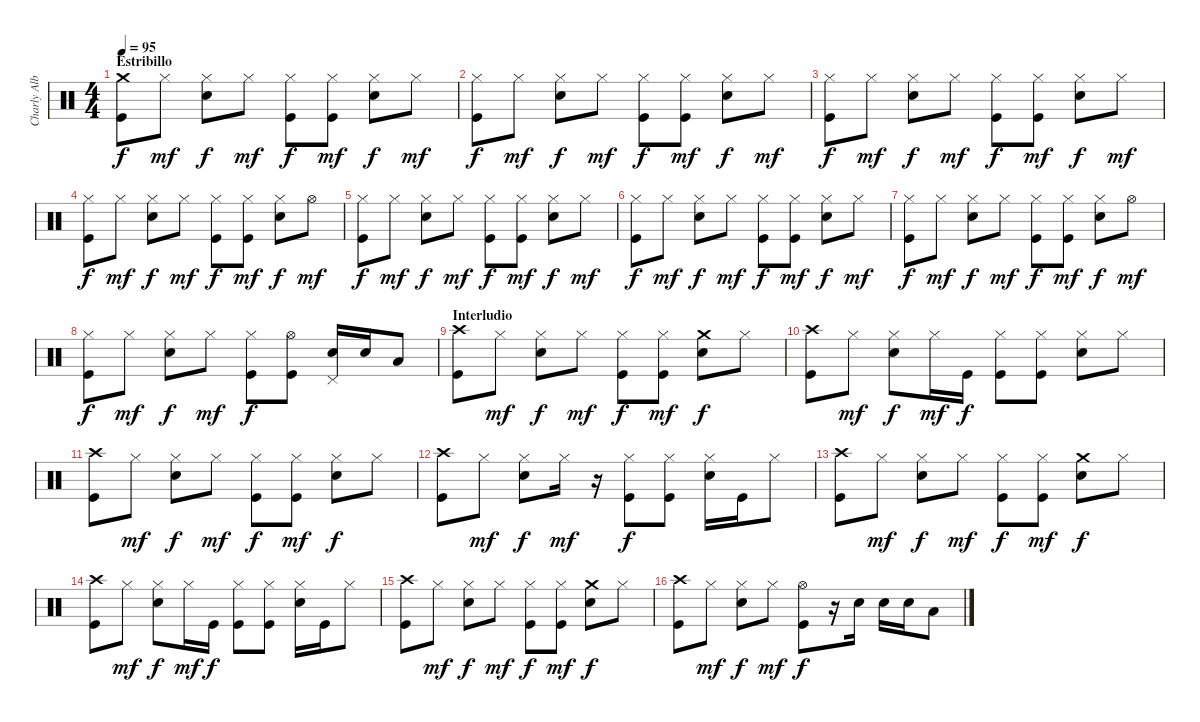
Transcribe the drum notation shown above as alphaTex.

\track ("Charly Alberti BATERIA" "Charly Alb") {instrument percussion}
\staff {score}
\articulation defaults
\ts (4 4)
\section ("" "Estribillo")
\tempo 95
\clef neutral
\ks c
("Kick (hit)" "Crash medium (hit)").8{dy f} "Hi-Hat (closed)".8{dy mf} ("Electric Snare (hit)" "Hi-Hat (closed)").8{dy f} "Hi-Hat (closed)".8{dy mf} ("Kick (hit)" "Hi-Hat (closed)").8{dy f} ("Kick (hit)" "Hi-Hat (closed)").8{dy mf} ("Electric Snare (hit)" "Hi-Hat (closed)").8{dy f} "Hi-Hat (closed)".8{dy mf} |
("Kick (hit)" "Hi-Hat (closed)").8{dy f} "Hi-Hat (closed)".8{dy mf} ("Electric Snare (hit)" "Hi-Hat (closed)").8{dy f} "Hi-Hat (closed)".8{dy mf} ("Kick (hit)" "Hi-Hat (closed)").8{dy f} ("Kick (hit)" "Hi-Hat (closed)").8{dy mf} ("Electric Snare (hit)" "Hi-Hat (closed)").8{dy f} "Hi-Hat (closed)".8{dy mf} |
("Kick (hit)" "Hi-Hat (closed)").8{dy f} "Hi-Hat (closed)".8{dy mf} ("Electric Snare (hit)" "Hi-Hat (closed)").8{dy f} "Hi-Hat (closed)".8{dy mf} ("Kick (hit)" "Hi-Hat (closed)").8{dy f} ("Kick (hit)" "Hi-Hat (closed)").8{dy mf} ("Electric Snare (hit)" "Hi-Hat (closed)").8{dy f} "Hi-Hat (closed)".8{dy mf} |
("Kick (hit)" "Hi-Hat (closed)").8{dy f} "Hi-Hat (closed)".8{dy mf} ("Electric Snare (hit)" "Hi-Hat (closed)").8{dy f} "Hi-Hat (closed)".8{dy mf} ("Kick (hit)" "Hi-Hat (closed)").8{dy f} ("Kick (hit)" "Hi-Hat (closed)").8{dy mf} ("Electric Snare (hit)" "Hi-Hat (closed)").8{dy f} "Hi-Hat (open)".8{dy mf} |
("Kick (hit)" "Hi-Hat (closed)").8{dy f} "Hi-Hat (closed)".8{dy mf} ("Electric Snare (hit)" "Hi-Hat (closed)").8{dy f} "Hi-Hat (closed)".8{dy mf} ("Kick (hit)" "Hi-Hat (closed)").8{dy f} ("Kick (hit)" "Hi-Hat (closed)").8{dy mf} ("Electric Snare (hit)" "Hi-Hat (closed)").8{dy f} "Hi-Hat (closed)".8{dy mf} |
("Kick (hit)" "Hi-Hat (closed)").8{dy f} "Hi-Hat (closed)".8{dy mf} ("Electric Snare (hit)" "Hi-Hat (closed)").8{dy f} "Hi-Hat (closed)".8{dy mf} ("Kick (hit)" "Hi-Hat (closed)").8{dy f} ("Kick (hit)" "Hi-Hat (closed)").8{dy mf} ("Electric Snare (hit)" "Hi-Hat (closed)").8{dy f} "Hi-Hat (closed)".8{dy mf} |
("Kick (hit)" "Hi-Hat (closed)").8{dy f} "Hi-Hat (closed)".8{dy mf} ("Electric Snare (hit)" "Hi-Hat (closed)").8{dy f} "Hi-Hat (closed)".8{dy mf} ("Kick (hit)" "Hi-Hat (closed)").8{dy f} ("Kick (hit)" "Hi-Hat (closed)").8{dy mf} ("Electric Snare (hit)" "Hi-Hat (closed)").8{dy f} "Hi-Hat (open)".8{dy mf} |
("Kick (hit)" "Hi-Hat (closed)").8{dy f} "Hi-Hat (closed)".8{dy mf} ("Electric Snare (hit)" "Hi-Hat (closed)").8{dy f} "Hi-Hat (closed)".8{dy mf} ("Kick (hit)" "Hi-Hat (closed)").8{dy f} ("Kick (hit)" "Hi-Hat (open)").8 ("Electric Snare (hit)" "Pedal Hi-Hat (hit)").16 "Electric Snare (hit)".16 "Low Tom (hit)".8 |
\section ("" "Interludio")
("Kick (hit)" "Crash high (hit)").8 "Hi-Hat (closed)".8{dy mf} ("Electric Snare (hit)" "Hi-Hat (closed)").8{dy f} "Hi-Hat (closed)".8{dy mf} ("Kick (hit)" "Hi-Hat (closed)").8{dy f} ("Kick (hit)" "Hi-Hat (closed)").8{dy mf} ("Electric Snare (hit)" "Crash medium (hit)").8{dy f} "Hi-Hat (closed)".8 |
("Kick (hit)" "Crash high (hit)").8 "Hi-Hat (closed)".8{dy mf} ("Electric Snare (hit)" "Hi-Hat (closed)").8{dy f} "Hi-Hat (closed)".16{dy mf} "Kick (hit)".16{dy f} ("Kick (hit)" "Hi-Hat (closed)").8 ("Kick (hit)" "Hi-Hat (closed)").8 ("Electric Snare (hit)" "Hi-Hat (closed)").8 "Hi-Hat (closed)".8 |
("Kick (hit)" "Crash high (hit)").8 "Hi-Hat (closed)".8{dy mf} ("Electric Snare (hit)" "Hi-Hat (closed)").8{dy f} "Hi-Hat (closed)".8{dy mf} ("Kick (hit)" "Hi-Hat (closed)").8{dy f} ("Kick (hit)" "Hi-Hat (closed)").8{dy mf} ("Electric Snare (hit)" "Hi-Hat (closed)").8{dy f} "Hi-Hat (closed)".8 |
("Kick (hit)" "Crash high (hit)").8 "Hi-Hat (closed)".8{dy mf} ("Electric Snare (hit)" "Hi-Hat (closed)").8{dy f} "Hi-Hat (closed)".16{dy mf} r.16 ("Kick (hit)" "Hi-Hat (closed)").8{dy f} ("Kick (hit)" "Hi-Hat (closed)").8 ("Electric Snare (hit)" "Hi-Hat (closed)").16 "Kick (hit)".16 "Hi-Hat (closed)".8 |
("Kick (hit)" "Crash high (hit)").8 "Hi-Hat (closed)".8{dy mf} ("Electric Snare (hit)" "Hi-Hat (closed)").8{dy f} "Hi-Hat (closed)".8{dy mf} ("Kick (hit)" "Hi-Hat (closed)").8{dy f} ("Kick (hit)" "Hi-Hat (closed)").8{dy mf} ("Electric Snare (hit)" "Crash medium (hit)").8{dy f} "Hi-Hat (closed)".8 |
("Kick (hit)" "Crash high (hit)").8 "Hi-Hat (closed)".8{dy mf} ("Electric Snare (hit)" "Hi-Hat (closed)").8{dy f} "Hi-Hat (closed)".16{dy mf} "Kick (hit)".16{dy f} ("Kick (hit)" "Hi-Hat (closed)").8 ("Kick (hit)" "Hi-Hat (closed)").8 ("Electric Snare (hit)" "Hi-Hat (closed)").16 "Kick (hit)".16 "Hi-Hat (closed)".8 |
("Kick (hit)" "Crash high (hit)").8 "Hi-Hat (closed)".8{dy mf} ("Electric Snare (hit)" "Hi-Hat (closed)").8{dy f} "Hi-Hat (closed)".8{dy mf} ("Kick (hit)" "Hi-Hat (closed)").8{dy f} ("Kick (hit)" "Hi-Hat (closed)").8{dy mf} ("Electric Snare (hit)" "Crash medium (hit)").8{dy f} "Hi-Hat (closed)".8 |
("Kick (hit)" "Crash high (hit)").8 "Hi-Hat (closed)".8{dy mf} ("Electric Snare (hit)" "Hi-Hat (closed)").8{dy f} "Hi-Hat (closed)".8{dy mf} ("Kick (hit)" "Hi-Hat (open)").8{dy f} r.16 "Electric Snare (hit)".16 "Electric Snare (hit)".16 "Electric Snare (hit)".16 "Low Tom (hit)".8
